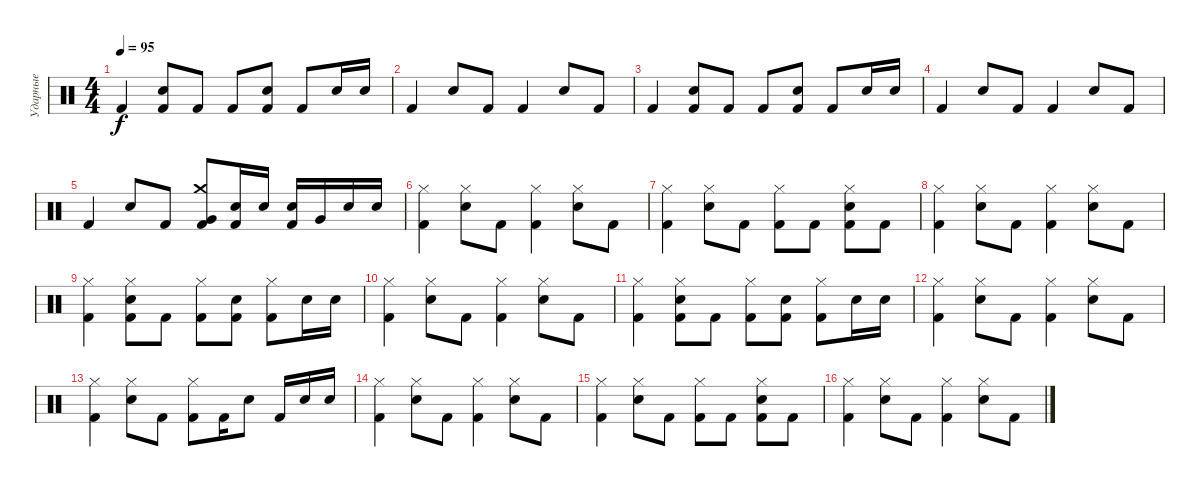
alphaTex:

\track ("Ударные" "Ударные") {instrument percussion}
\staff {score}
\articulation defaults
\ts (4 4)
\tempo 95
\clef neutral
\ks c "Kick (hit) 2".4{dy f}
("Snare (hit) 2" "Kick (hit) 2").8 "Kick (hit) 2".8 "Kick (hit) 2".8 ("Snare (hit) 2" "Kick (hit) 2").8 "Kick (hit) 2".8 "Snare (hit) 2".16 "Snare (hit) 2".16 |
"Kick (hit) 2".4 "Snare (hit) 2".8 "Kick (hit) 2".8 "Kick (hit) 2".4 "Snare (hit) 2".8 "Kick (hit) 2".8 |
"Kick (hit) 2".4 ("Snare (hit) 2" "Kick (hit) 2").8 "Kick (hit) 2".8 "Kick (hit) 2".8 ("Snare (hit) 2" "Kick (hit) 2").8 "Kick (hit) 2".8 "Snare (hit) 2".16 "Snare (hit) 2".16 |
"Kick (hit) 2".4 "Snare (hit) 2".8 "Kick (hit) 2".8 "Kick (hit) 2".4 "Snare (hit) 2".8 "Kick (hit) 2".8 |
"Kick (hit) 2".4 "Snare (hit) 2".8 "Kick (hit) 2".8 ("Crash medium (hit)" "Very Low Tom (hit)" "Kick (hit) 2").8 ("Snare (hit) 2" "Kick (hit) 2").16 "Snare (hit) 2".16 ("Snare (hit) 2" "Kick (hit) 2").16 "Very Low Tom (hit)".16 "Snare (hit) 2".16 "Snare (hit) 2".16 |
("Hi-Hat (closed)" "Kick (hit) 2").4 ("Hi-Hat (closed)" "Snare (hit) 2").8 "Kick (hit) 2".8 ("Hi-Hat (closed)" "Kick (hit) 2").4 ("Hi-Hat (closed)" "Snare (hit) 2").8 "Kick (hit) 2".8 |
("Hi-Hat (closed)" "Kick (hit) 2").4 ("Hi-Hat (closed)" "Snare (hit) 2").8 "Kick (hit) 2".8 ("Hi-Hat (closed)" "Kick (hit) 2").8 "Kick (hit) 2".8 ("Hi-Hat (closed)" "Snare (hit) 2" "Kick (hit) 2").8 "Kick (hit) 2".8 |
("Hi-Hat (closed)" "Kick (hit) 2").4 ("Hi-Hat (closed)" "Snare (hit) 2").8 "Kick (hit) 2".8 ("Hi-Hat (closed)" "Kick (hit) 2").4 ("Hi-Hat (closed)" "Snare (hit) 2").8 "Kick (hit) 2".8 |
("Hi-Hat (closed)" "Kick (hit) 2").4 ("Hi-Hat (closed)" "Snare (hit) 2" "Kick (hit) 2").8 "Kick (hit) 2".8 ("Hi-Hat (closed)" "Kick (hit) 2").8 ("Snare (hit) 2" "Kick (hit) 2").8 ("Hi-Hat (closed)" "Kick (hit) 2").8 "Snare (hit) 2".16 "Snare (hit) 2".16 |
("Hi-Hat (closed)" "Kick (hit) 2").4 ("Hi-Hat (closed)" "Snare (hit) 2").8 "Kick (hit) 2".8 ("Hi-Hat (closed)" "Kick (hit) 2").4 ("Hi-Hat (closed)" "Snare (hit) 2").8 "Kick (hit) 2".8 |
("Hi-Hat (closed)" "Kick (hit) 2").4 ("Hi-Hat (closed)" "Snare (hit) 2" "Kick (hit) 2").8 "Kick (hit) 2".8 ("Hi-Hat (closed)" "Kick (hit) 2").8 ("Snare (hit) 2" "Kick (hit) 2").8 ("Hi-Hat (closed)" "Kick (hit) 2").8 "Snare (hit) 2".16 "Snare (hit) 2".16 |
("Hi-Hat (closed)" "Kick (hit) 2").4 ("Hi-Hat (closed)" "Snare (hit) 2").8 "Kick (hit) 2".8 ("Hi-Hat (closed)" "Kick (hit) 2").4 ("Hi-Hat (closed)" "Snare (hit) 2").8 "Kick (hit) 2".8 |
("Hi-Hat (closed)" "Kick (hit) 2").4 ("Hi-Hat (closed)" "Snare (hit) 2").8 "Kick (hit) 2".8 ("Hi-Hat (closed)" "Kick (hit) 2").8 "Kick (hit) 2".16 "Snare (hit) 2".8 "Kick (hit) 2".16 "Snare (hit) 2".16 "Snare (hit) 2".16 |
("Hi-Hat (closed)" "Kick (hit) 2").4 ("Hi-Hat (closed)" "Snare (hit) 2").8 "Kick (hit) 2".8 ("Hi-Hat (closed)" "Kick (hit) 2").4 ("Hi-Hat (closed)" "Snare (hit) 2").8 "Kick (hit) 2".8 |
("Hi-Hat (closed)" "Kick (hit) 2").4 ("Hi-Hat (closed)" "Snare (hit) 2").8 "Kick (hit) 2".8 ("Hi-Hat (closed)" "Kick (hit) 2").8 "Kick (hit) 2".8 ("Hi-Hat (closed)" "Snare (hit) 2" "Kick (hit) 2").8 "Kick (hit) 2".8 |
("Hi-Hat (closed)" "Kick (hit) 2").4 ("Hi-Hat (closed)" "Snare (hit) 2").8 "Kick (hit) 2".8 ("Hi-Hat (closed)" "Kick (hit) 2").4 ("Hi-Hat (closed)" "Snare (hit) 2").8 "Kick (hit) 2".8
